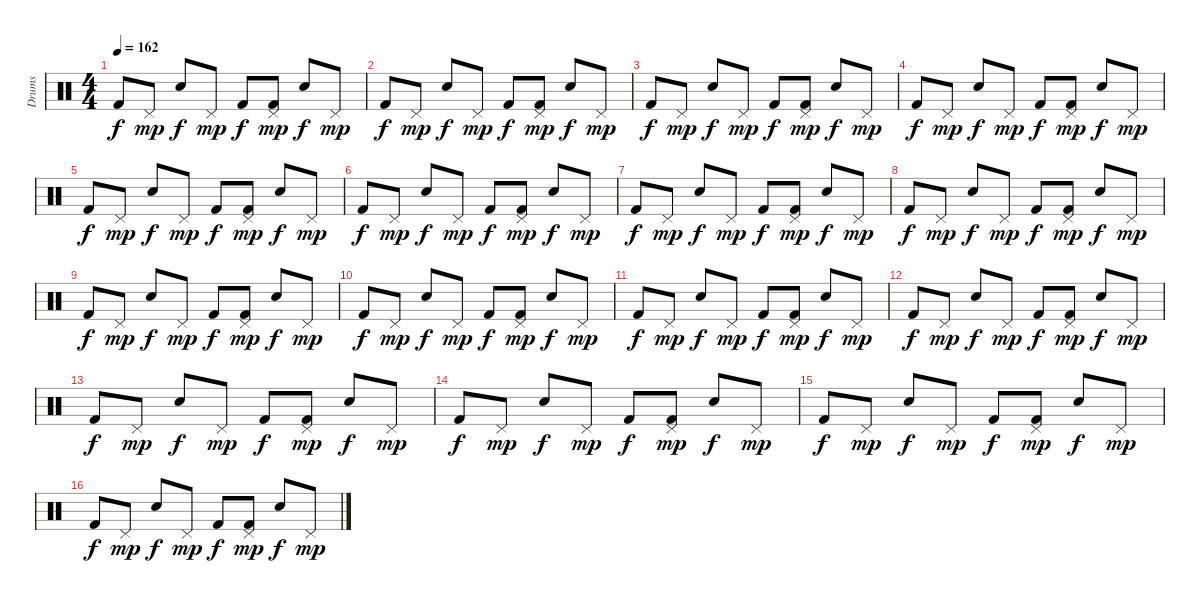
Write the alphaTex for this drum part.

\track ("Drums" "Drums") {instrument percussion}
\staff {score}
\articulation defaults
\ts (4 4)
\tempo 162
\clef neutral
\ks c "Kick (hit) 2".8{dy f} "Pedal Hi-Hat (hit)".8{dy mp} "Snare (hit) 2".8{dy f} "Pedal Hi-Hat (hit)".8{dy mp} "Kick (hit) 2".8{dy f}
("Pedal Hi-Hat (hit)" "Kick (hit) 2").8{dy mp} "Snare (hit) 2".8{dy f} "Pedal Hi-Hat (hit)".8{dy mp} |
"Kick (hit) 2".8{dy f} "Pedal Hi-Hat (hit)".8{dy mp} "Snare (hit) 2".8{dy f} "Pedal Hi-Hat (hit)".8{dy mp} "Kick (hit) 2".8{dy f} ("Pedal Hi-Hat (hit)" "Kick (hit) 2").8{dy mp} "Snare (hit) 2".8{dy f} "Pedal Hi-Hat (hit)".8{dy mp} |
"Kick (hit) 2".8{dy f} "Pedal Hi-Hat (hit)".8{dy mp} "Snare (hit) 2".8{dy f} "Pedal Hi-Hat (hit)".8{dy mp} "Kick (hit) 2".8{dy f} ("Pedal Hi-Hat (hit)" "Kick (hit) 2").8{dy mp} "Snare (hit) 2".8{dy f} "Pedal Hi-Hat (hit)".8{dy mp} |
"Kick (hit) 2".8{dy f} "Pedal Hi-Hat (hit)".8{dy mp} "Snare (hit) 2".8{dy f} "Pedal Hi-Hat (hit)".8{dy mp} "Kick (hit) 2".8{dy f} ("Pedal Hi-Hat (hit)" "Kick (hit) 2").8{dy mp} "Snare (hit) 2".8{dy f} "Pedal Hi-Hat (hit)".8{dy mp} |
"Kick (hit) 2".8{dy f} "Pedal Hi-Hat (hit)".8{dy mp} "Snare (hit) 2".8{dy f} "Pedal Hi-Hat (hit)".8{dy mp} "Kick (hit) 2".8{dy f} ("Pedal Hi-Hat (hit)" "Kick (hit) 2").8{dy mp} "Snare (hit) 2".8{dy f} "Pedal Hi-Hat (hit)".8{dy mp} |
"Kick (hit) 2".8{dy f} "Pedal Hi-Hat (hit)".8{dy mp} "Snare (hit) 2".8{dy f} "Pedal Hi-Hat (hit)".8{dy mp} "Kick (hit) 2".8{dy f} ("Pedal Hi-Hat (hit)" "Kick (hit) 2").8{dy mp} "Snare (hit) 2".8{dy f} "Pedal Hi-Hat (hit)".8{dy mp} |
"Kick (hit) 2".8{dy f} "Pedal Hi-Hat (hit)".8{dy mp} "Snare (hit) 2".8{dy f} "Pedal Hi-Hat (hit)".8{dy mp} "Kick (hit) 2".8{dy f} ("Pedal Hi-Hat (hit)" "Kick (hit) 2").8{dy mp} "Snare (hit) 2".8{dy f} "Pedal Hi-Hat (hit)".8{dy mp} |
"Kick (hit) 2".8{dy f} "Pedal Hi-Hat (hit)".8{dy mp} "Snare (hit) 2".8{dy f} "Pedal Hi-Hat (hit)".8{dy mp} "Kick (hit) 2".8{dy f} ("Pedal Hi-Hat (hit)" "Kick (hit) 2").8{dy mp} "Snare (hit) 2".8{dy f} "Pedal Hi-Hat (hit)".8{dy mp} |
"Kick (hit) 2".8{dy f} "Pedal Hi-Hat (hit)".8{dy mp} "Snare (hit) 2".8{dy f} "Pedal Hi-Hat (hit)".8{dy mp} "Kick (hit) 2".8{dy f} ("Pedal Hi-Hat (hit)" "Kick (hit) 2").8{dy mp} "Snare (hit) 2".8{dy f} "Pedal Hi-Hat (hit)".8{dy mp} |
"Kick (hit) 2".8{dy f} "Pedal Hi-Hat (hit)".8{dy mp} "Snare (hit) 2".8{dy f} "Pedal Hi-Hat (hit)".8{dy mp} "Kick (hit) 2".8{dy f} ("Pedal Hi-Hat (hit)" "Kick (hit) 2").8{dy mp} "Snare (hit) 2".8{dy f} "Pedal Hi-Hat (hit)".8{dy mp} |
"Kick (hit) 2".8{dy f} "Pedal Hi-Hat (hit)".8{dy mp} "Snare (hit) 2".8{dy f} "Pedal Hi-Hat (hit)".8{dy mp} "Kick (hit) 2".8{dy f} ("Pedal Hi-Hat (hit)" "Kick (hit) 2").8{dy mp} "Snare (hit) 2".8{dy f} "Pedal Hi-Hat (hit)".8{dy mp} |
"Kick (hit) 2".8{dy f} "Pedal Hi-Hat (hit)".8{dy mp} "Snare (hit) 2".8{dy f} "Pedal Hi-Hat (hit)".8{dy mp} "Kick (hit) 2".8{dy f} ("Pedal Hi-Hat (hit)" "Kick (hit) 2").8{dy mp} "Snare (hit) 2".8{dy f} "Pedal Hi-Hat (hit)".8{dy mp} |
"Kick (hit) 2".8{dy f} "Pedal Hi-Hat (hit)".8{dy mp} "Snare (hit) 2".8{dy f} "Pedal Hi-Hat (hit)".8{dy mp} "Kick (hit) 2".8{dy f} ("Pedal Hi-Hat (hit)" "Kick (hit) 2").8{dy mp} "Snare (hit) 2".8{dy f} "Pedal Hi-Hat (hit)".8{dy mp} |
"Kick (hit) 2".8{dy f} "Pedal Hi-Hat (hit)".8{dy mp} "Snare (hit) 2".8{dy f} "Pedal Hi-Hat (hit)".8{dy mp} "Kick (hit) 2".8{dy f} ("Pedal Hi-Hat (hit)" "Kick (hit) 2").8{dy mp} "Snare (hit) 2".8{dy f} "Pedal Hi-Hat (hit)".8{dy mp} |
"Kick (hit) 2".8{dy f} "Pedal Hi-Hat (hit)".8{dy mp} "Snare (hit) 2".8{dy f} "Pedal Hi-Hat (hit)".8{dy mp} "Kick (hit) 2".8{dy f} ("Pedal Hi-Hat (hit)" "Kick (hit) 2").8{dy mp} "Snare (hit) 2".8{dy f} "Pedal Hi-Hat (hit)".8{dy mp} |
"Kick (hit) 2".8{dy f} "Pedal Hi-Hat (hit)".8{dy mp} "Snare (hit) 2".8{dy f} "Pedal Hi-Hat (hit)".8{dy mp} "Kick (hit) 2".8{dy f} ("Pedal Hi-Hat (hit)" "Kick (hit) 2").8{dy mp} "Snare (hit) 2".8{dy f} "Pedal Hi-Hat (hit)".8{dy mp}
